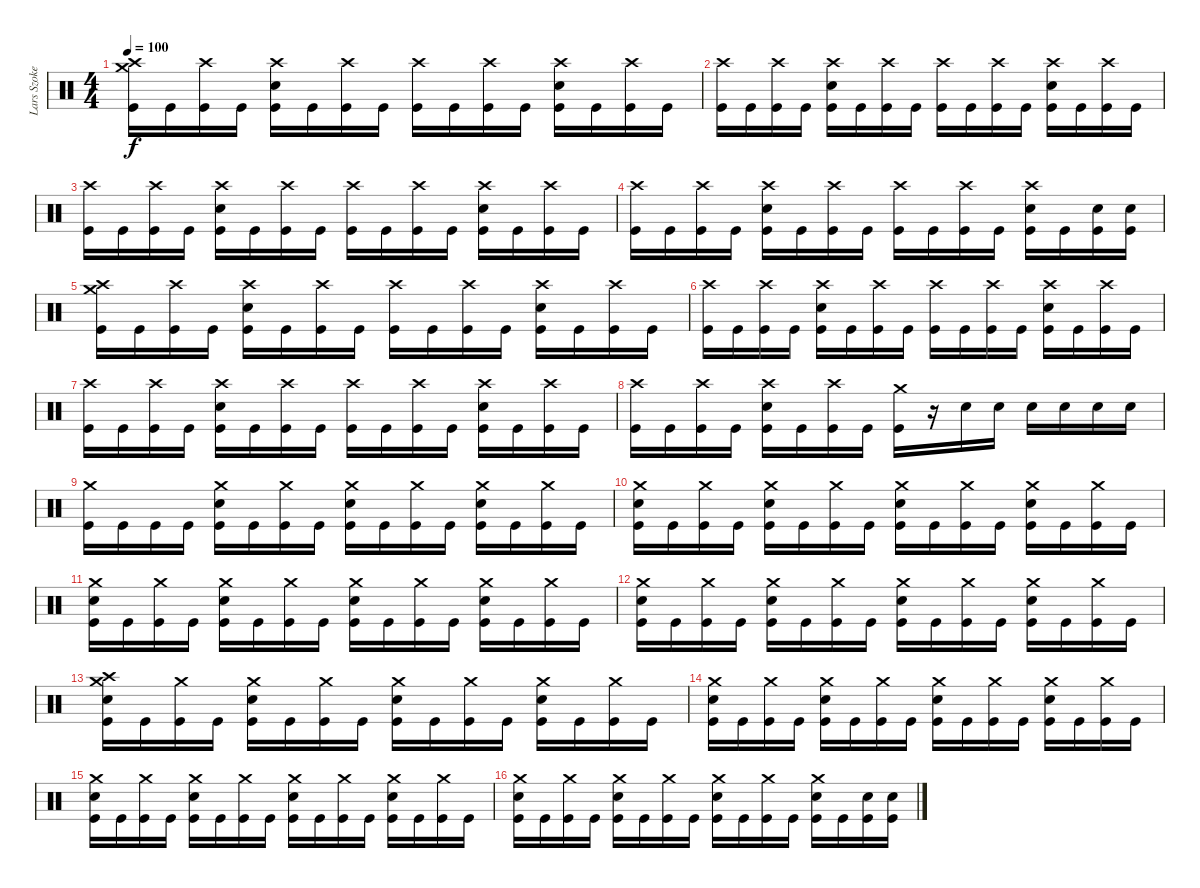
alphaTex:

\track ("Lars Szoke" "Lars Szoke") {instrument percussion}
\staff {score}
\articulation defaults
\ts (4 4)
\tempo 100
\clef neutral
\ks c
("Crash high (hit)" "Crash medium (hit)" "Kick (hit)").16{dy f} "Kick (hit)".16 ("Crash high (hit)" "Kick (hit)").16 "Kick (hit)".16 ("Crash high (hit)" "Electric Snare (hit)" "Kick (hit)").16 "Kick (hit)".16 ("Crash high (hit)" "Kick (hit)").16 "Kick (hit)".16 ("Crash high (hit)" "Kick (hit)").16 "Kick (hit)".16 ("Crash high (hit)" "Kick (hit)").16 "Kick (hit)".16 ("Crash high (hit)" "Electric Snare (hit)" "Kick (hit)").16 "Kick (hit)".16 ("Crash high (hit)" "Kick (hit)").16 "Kick (hit)".16 |
("Crash high (hit)" "Kick (hit)").16 "Kick (hit)".16 ("Crash high (hit)" "Kick (hit)").16 "Kick (hit)".16 ("Crash high (hit)" "Electric Snare (hit)" "Kick (hit)").16 "Kick (hit)".16 ("Crash high (hit)" "Kick (hit)").16 "Kick (hit)".16 ("Crash high (hit)" "Kick (hit)").16 "Kick (hit)".16 ("Crash high (hit)" "Kick (hit)").16 "Kick (hit)".16 ("Crash high (hit)" "Electric Snare (hit)" "Kick (hit)").16 "Kick (hit)".16 ("Crash high (hit)" "Kick (hit)").16 "Kick (hit)".16 |
("Crash high (hit)" "Kick (hit)").16 "Kick (hit)".16 ("Crash high (hit)" "Kick (hit)").16 "Kick (hit)".16 ("Crash high (hit)" "Electric Snare (hit)" "Kick (hit)").16 "Kick (hit)".16 ("Crash high (hit)" "Kick (hit)").16 "Kick (hit)".16 ("Crash high (hit)" "Kick (hit)").16 "Kick (hit)".16 ("Crash high (hit)" "Kick (hit)").16 "Kick (hit)".16 ("Crash high (hit)" "Electric Snare (hit)" "Kick (hit)").16 "Kick (hit)".16 ("Crash high (hit)" "Kick (hit)").16 "Kick (hit)".16 |
("Crash high (hit)" "Kick (hit)").16 "Kick (hit)".16 ("Crash high (hit)" "Kick (hit)").16 "Kick (hit)".16 ("Crash high (hit)" "Electric Snare (hit)" "Kick (hit)").16 "Kick (hit)".16 ("Crash high (hit)" "Kick (hit)").16 "Kick (hit)".16 ("Crash high (hit)" "Kick (hit)").16 "Kick (hit)".16 ("Crash high (hit)" "Kick (hit)").16 "Kick (hit)".16 ("Crash high (hit)" "Electric Snare (hit)" "Kick (hit)").16 "Kick (hit)".16 ("Electric Snare (hit)" "Kick (hit)").16 ("Electric Snare (hit)" "Kick (hit)").16 |
("Crash high (hit)" "Crash medium (hit)" "Kick (hit)").16 "Kick (hit)".16 ("Crash high (hit)" "Kick (hit)").16 "Kick (hit)".16 ("Crash high (hit)" "Electric Snare (hit)" "Kick (hit)").16 "Kick (hit)".16 ("Crash high (hit)" "Kick (hit)").16 "Kick (hit)".16 ("Crash high (hit)" "Kick (hit)").16 "Kick (hit)".16 ("Crash high (hit)" "Kick (hit)").16 "Kick (hit)".16 ("Crash high (hit)" "Electric Snare (hit)" "Kick (hit)").16 "Kick (hit)".16 ("Crash high (hit)" "Kick (hit)").16 "Kick (hit)".16 |
("Crash high (hit)" "Kick (hit)").16 "Kick (hit)".16 ("Crash high (hit)" "Kick (hit)").16 "Kick (hit)".16 ("Crash high (hit)" "Electric Snare (hit)" "Kick (hit)").16 "Kick (hit)".16 ("Crash high (hit)" "Kick (hit)").16 "Kick (hit)".16 ("Crash high (hit)" "Kick (hit)").16 "Kick (hit)".16 ("Crash high (hit)" "Kick (hit)").16 "Kick (hit)".16 ("Crash high (hit)" "Electric Snare (hit)" "Kick (hit)").16 "Kick (hit)".16 ("Crash high (hit)" "Kick (hit)").16 "Kick (hit)".16 |
("Crash high (hit)" "Kick (hit)").16 "Kick (hit)".16 ("Crash high (hit)" "Kick (hit)").16 "Kick (hit)".16 ("Crash high (hit)" "Electric Snare (hit)" "Kick (hit)").16 "Kick (hit)".16 ("Crash high (hit)" "Kick (hit)").16 "Kick (hit)".16 ("Crash high (hit)" "Kick (hit)").16 "Kick (hit)".16 ("Crash high (hit)" "Kick (hit)").16 "Kick (hit)".16 ("Crash high (hit)" "Electric Snare (hit)" "Kick (hit)").16 "Kick (hit)".16 ("Crash high (hit)" "Kick (hit)").16 "Kick (hit)".16 |
("Crash high (hit)" "Kick (hit)").16 "Kick (hit)".16 ("Crash high (hit)" "Kick (hit)").16 "Kick (hit)".16 ("Crash high (hit)" "Electric Snare (hit)" "Kick (hit)").16 "Kick (hit)".16 ("Crash high (hit)" "Kick (hit)").16 "Kick (hit)".16 ("Crash medium (hit)" "Kick (hit)").16 r.16 "Electric Snare (hit)".16 "Electric Snare (hit)".16 "Electric Snare (hit)".16 "Electric Snare (hit)".16 "Electric Snare (hit)".16 "Electric Snare (hit)".16 |
("Crash medium (hit)" "Kick (hit)").16 "Kick (hit)".16 "Kick (hit)".16 "Kick (hit)".16 ("Crash medium (hit)" "Electric Snare (hit)" "Kick (hit)").16 "Kick (hit)".16 ("Crash medium (hit)" "Kick (hit)").16 "Kick (hit)".16 ("Crash medium (hit)" "Electric Snare (hit)" "Kick (hit)").16 "Kick (hit)".16 ("Crash medium (hit)" "Kick (hit)").16 "Kick (hit)".16 ("Crash medium (hit)" "Electric Snare (hit)" "Kick (hit)").16 "Kick (hit)".16 ("Crash medium (hit)" "Kick (hit)").16 "Kick (hit)".16 |
("Crash medium (hit)" "Electric Snare (hit)" "Kick (hit)").16 "Kick (hit)".16 ("Crash medium (hit)" "Kick (hit)").16 "Kick (hit)".16 ("Crash medium (hit)" "Electric Snare (hit)" "Kick (hit)").16 "Kick (hit)".16 ("Crash medium (hit)" "Kick (hit)").16 "Kick (hit)".16 ("Crash medium (hit)" "Electric Snare (hit)" "Kick (hit)").16 "Kick (hit)".16 ("Crash medium (hit)" "Kick (hit)").16 "Kick (hit)".16 ("Crash medium (hit)" "Electric Snare (hit)" "Kick (hit)").16 "Kick (hit)".16 ("Crash medium (hit)" "Kick (hit)").16 "Kick (hit)".16 |
("Crash medium (hit)" "Electric Snare (hit)" "Kick (hit)").16 "Kick (hit)".16 ("Crash medium (hit)" "Kick (hit)").16 "Kick (hit)".16 ("Crash medium (hit)" "Electric Snare (hit)" "Kick (hit)").16 "Kick (hit)".16 ("Crash medium (hit)" "Kick (hit)").16 "Kick (hit)".16 ("Crash medium (hit)" "Electric Snare (hit)" "Kick (hit)").16 "Kick (hit)".16 ("Crash medium (hit)" "Kick (hit)").16 "Kick (hit)".16 ("Crash medium (hit)" "Electric Snare (hit)" "Kick (hit)").16 "Kick (hit)".16 ("Crash medium (hit)" "Kick (hit)").16 "Kick (hit)".16 |
("Crash medium (hit)" "Electric Snare (hit)" "Kick (hit)").16 "Kick (hit)".16 ("Crash medium (hit)" "Kick (hit)").16 "Kick (hit)".16 ("Crash medium (hit)" "Electric Snare (hit)" "Kick (hit)").16 "Kick (hit)".16 ("Crash medium (hit)" "Kick (hit)").16 "Kick (hit)".16 ("Crash medium (hit)" "Electric Snare (hit)" "Kick (hit)").16 "Kick (hit)".16 ("Crash medium (hit)" "Kick (hit)").16 "Kick (hit)".16 ("Crash medium (hit)" "Electric Snare (hit)" "Kick (hit)").16 "Kick (hit)".16 ("Crash medium (hit)" "Kick (hit)").16 "Kick (hit)".16 |
("Crash medium (hit)" "Crash high (hit)" "Electric Snare (hit)" "Kick (hit)").16 "Kick (hit)".16 ("Crash medium (hit)" "Kick (hit)").16 "Kick (hit)".16 ("Crash medium (hit)" "Electric Snare (hit)" "Kick (hit)").16 "Kick (hit)".16 ("Crash medium (hit)" "Kick (hit)").16 "Kick (hit)".16 ("Crash medium (hit)" "Electric Snare (hit)" "Kick (hit)").16 "Kick (hit)".16 ("Crash medium (hit)" "Kick (hit)").16 "Kick (hit)".16 ("Crash medium (hit)" "Electric Snare (hit)" "Kick (hit)").16 "Kick (hit)".16 ("Crash medium (hit)" "Kick (hit)").16 "Kick (hit)".16 |
("Crash medium (hit)" "Electric Snare (hit)" "Kick (hit)").16 "Kick (hit)".16 ("Crash medium (hit)" "Kick (hit)").16 "Kick (hit)".16 ("Crash medium (hit)" "Electric Snare (hit)" "Kick (hit)").16 "Kick (hit)".16 ("Crash medium (hit)" "Kick (hit)").16 "Kick (hit)".16 ("Crash medium (hit)" "Electric Snare (hit)" "Kick (hit)").16 "Kick (hit)".16 ("Crash medium (hit)" "Kick (hit)").16 "Kick (hit)".16 ("Crash medium (hit)" "Electric Snare (hit)" "Kick (hit)").16 "Kick (hit)".16 ("Crash medium (hit)" "Kick (hit)").16 "Kick (hit)".16 |
("Crash medium (hit)" "Electric Snare (hit)" "Kick (hit)").16 "Kick (hit)".16 ("Crash medium (hit)" "Kick (hit)").16 "Kick (hit)".16 ("Crash medium (hit)" "Electric Snare (hit)" "Kick (hit)").16 "Kick (hit)".16 ("Crash medium (hit)" "Kick (hit)").16 "Kick (hit)".16 ("Crash medium (hit)" "Electric Snare (hit)" "Kick (hit)").16 "Kick (hit)".16 ("Crash medium (hit)" "Kick (hit)").16 "Kick (hit)".16 ("Crash medium (hit)" "Electric Snare (hit)" "Kick (hit)").16 "Kick (hit)".16 ("Crash medium (hit)" "Kick (hit)").16 "Kick (hit)".16 |
("Crash medium (hit)" "Electric Snare (hit)" "Kick (hit)").16 "Kick (hit)".16 ("Crash medium (hit)" "Kick (hit)").16 "Kick (hit)".16 ("Crash medium (hit)" "Electric Snare (hit)" "Kick (hit)").16 "Kick (hit)".16 ("Crash medium (hit)" "Kick (hit)").16 "Kick (hit)".16 ("Crash medium (hit)" "Electric Snare (hit)" "Kick (hit)").16 "Kick (hit)".16 ("Crash medium (hit)" "Kick (hit)").16 "Kick (hit)".16 ("Crash medium (hit)" "Electric Snare (hit)" "Kick (hit)").16 "Kick (hit)".16 ("Electric Snare (hit)" "Kick (hit)").16 ("Electric Snare (hit)" "Kick (hit)").16
